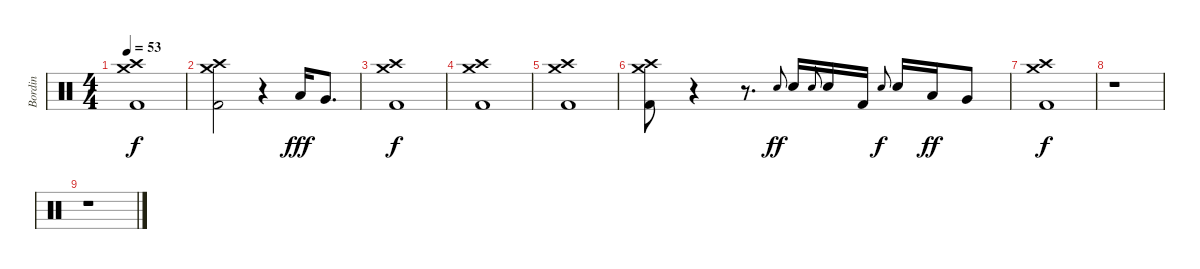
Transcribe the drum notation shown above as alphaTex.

\track ("Bordin" "Bordin") {instrument percussion}
\staff {score}
\articulation defaults
\ts (4 4)
\tempo 53
\clef neutral
\ks c
("Crash high (hit)" "Crash medium (hit)" "Kick (hit) 2").1{dy f} |
("Crash high (hit)" "Crash medium (hit)" "Kick (hit) 2").2 r.4 "Low Tom (hit)".16{dy fff} "Very Low Tom (hit)".8{d} |
("Crash high (hit)" "Crash medium (hit)" "Kick (hit) 2").1{dy f} |
("Crash high (hit)" "Crash medium (hit)" "Kick (hit) 2").1 |
("Crash high (hit)" "Crash medium (hit)" "Kick (hit) 2").1 |
("Crash high (hit)" "Crash medium (hit)" "Kick (hit) 2").8 r.4 r.8{d} "Electric Snare (hit)".8{gr onbeat dy ff} "Electric Snare (hit)".16 "Electric Snare (hit)".8{gr onbeat} "Electric Snare (hit)".16 "Kick (hit) 2".16 "Electric Snare (hit)".8{gr onbeat dy f} "Electric Snare (hit)".16 "Low Tom (hit)".16{dy ff} "Very Low Tom (hit)".8 |
("Crash high (hit)" "Crash medium (hit)" "Kick (hit) 2").1{dy f} |
r.1 |
r.1
